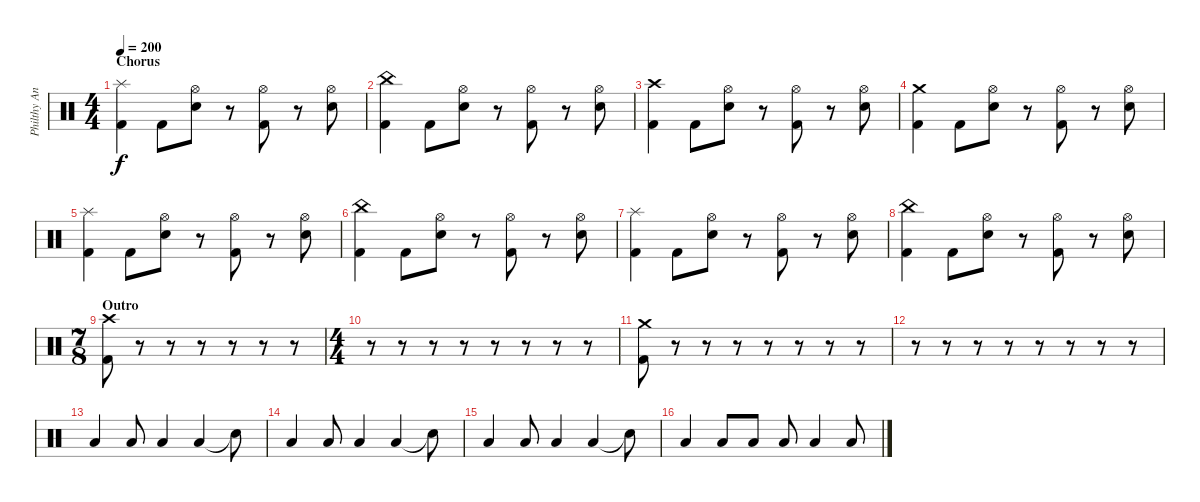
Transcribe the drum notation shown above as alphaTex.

\track ("Philthy Animal Taylor" "Philthy An") {instrument percussion}
\staff {score}
\articulation defaults
\ts (4 4)
\section ("" "Chorus")
\tempo 200
\clef neutral
\ks c
("Splash (hit)" "Kick (hit) 2").4{dy f} "Kick (hit) 2".8 ("Hi-Hat (open)" "Electric Snare (hit)").8 r.8 ("Hi-Hat (open)" "Kick (hit) 2").8 r.8 ("Hi-Hat (open)" "Electric Snare (hit)").8 |
("China (hit)" "Kick (hit) 2").4 "Kick (hit) 2".8 ("Hi-Hat (open)" "Electric Snare (hit)").8 r.8 ("Hi-Hat (open)" "Kick (hit) 2").8 r.8 ("Hi-Hat (open)" "Electric Snare (hit)").8 |
("Crash high (hit)" "Kick (hit) 2").4 "Kick (hit) 2".8 ("Hi-Hat (open)" "Electric Snare (hit)").8 r.8 ("Hi-Hat (open)" "Kick (hit) 2").8 r.8 ("Hi-Hat (open)" "Electric Snare (hit)").8 |
("Crash medium (hit)" "Kick (hit) 2").4 "Kick (hit) 2".8 ("Hi-Hat (open)" "Electric Snare (hit)").8 r.8 ("Hi-Hat (open)" "Kick (hit) 2").8 r.8 ("Hi-Hat (open)" "Electric Snare (hit)").8 |
("Splash (hit)" "Kick (hit) 2").4 "Kick (hit) 2".8 ("Hi-Hat (open)" "Electric Snare (hit)").8 r.8 ("Hi-Hat (open)" "Kick (hit) 2").8 r.8 ("Hi-Hat (open)" "Electric Snare (hit)").8 |
("China (hit)" "Kick (hit) 2").4 "Kick (hit) 2".8 ("Hi-Hat (open)" "Electric Snare (hit)").8 r.8 ("Hi-Hat (open)" "Kick (hit) 2").8 r.8 ("Hi-Hat (open)" "Electric Snare (hit)").8 |
("Splash (hit)" "Kick (hit) 2").4 "Kick (hit) 2".8 ("Hi-Hat (open)" "Electric Snare (hit)").8 r.8 ("Hi-Hat (open)" "Kick (hit) 2").8 r.8 ("Hi-Hat (open)" "Electric Snare (hit)").8 |
("China (hit)" "Kick (hit) 2").4 "Kick (hit) 2".8 ("Hi-Hat (open)" "Electric Snare (hit)").8 r.8 ("Hi-Hat (open)" "Kick (hit) 2").8 r.8 ("Hi-Hat (open)" "Electric Snare (hit)").8 |
\ts (7 8)
\section ("" "Outro")
("Crash high (hit)" "Kick (hit) 2").8 r.8 r.8 r.8 r.8 r.8 r.8 |
\ts (4 4)
r.8 r.8 r.8 r.8 r.8 r.8 r.8 r.8 |
("Crash medium (hit)" "Kick (hit) 2").8 r.8 r.8 r.8 r.8 r.8 r.8 r.8 |
r.8 r.8 r.8 r.8 r.8 r.8 r.8 r.8 |
"Low Floor Tom (hit)".4 "Low Floor Tom (hit)".8 "Low Floor Tom (hit)".4 "Low Floor Tom (hit)".4 "Snare (hit)"{t}.8 |
"Low Floor Tom (hit)".4 "Low Floor Tom (hit)".8 "Low Floor Tom (hit)".4 "Low Floor Tom (hit)".4 "Snare (hit)"{t}.8 |
"Low Floor Tom (hit)".4 "Low Floor Tom (hit)".8 "Low Floor Tom (hit)".4 "Low Floor Tom (hit)".4 "Snare (hit)"{t}.8 |
"Low Floor Tom (hit)".4 "Low Floor Tom (hit)".8 "Low Floor Tom (hit)".8 "Low Floor Tom (hit)".8 "Low Floor Tom (hit)".4 "Low Floor Tom (hit)".8
